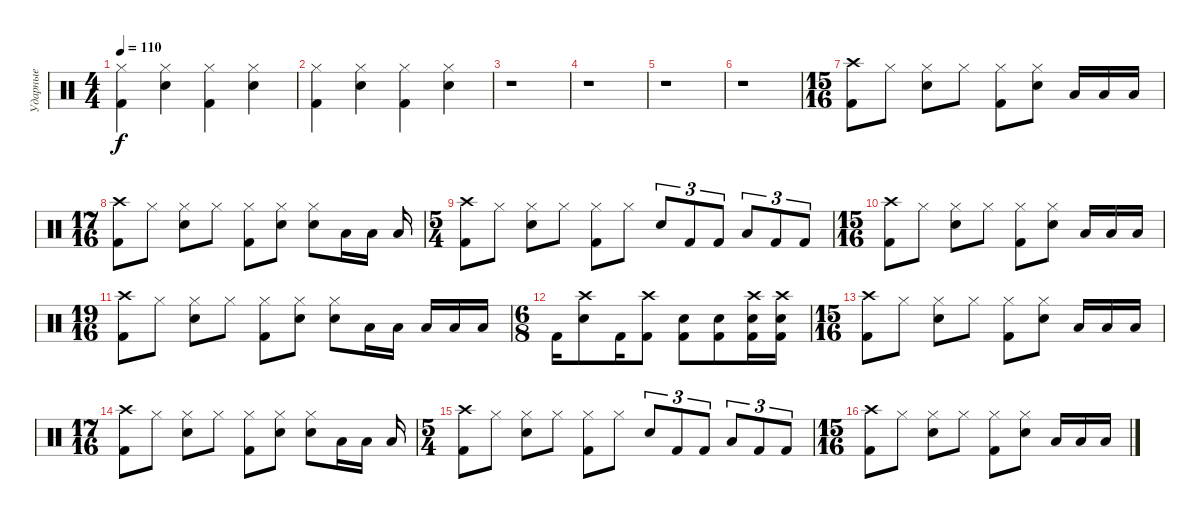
\track ("Ударные" "Ударные") {instrument percussion}
\staff {score}
\articulation defaults
\ts (4 4)
\tempo 110
\clef neutral
\ks c
("Kick (hit) 2" "Hi-Hat (closed)").4{dy f} ("Electric Snare (hit)" "Hi-Hat (closed)").4 ("Kick (hit) 2" "Hi-Hat (closed)").4 ("Electric Snare (hit)" "Hi-Hat (closed)").4 |
("Kick (hit) 2" "Hi-Hat (closed)").4 ("Electric Snare (hit)" "Hi-Hat (closed)").4 ("Kick (hit) 2" "Hi-Hat (closed)").4 ("Electric Snare (hit)" "Hi-Hat (closed)").4 |
r.1 |
r.1 |
r.1 |
r.1 |
\ts (15 16)
("Crash high (hit)" "Kick (hit) 2").8 "Hi-Hat (closed)".8 ("Electric Snare (hit)" "Hi-Hat (closed)").8 "Hi-Hat (closed)".8 ("Kick (hit) 2" "Hi-Hat (closed)").8 ("Electric Snare (hit)" "Hi-Hat (closed)").8 "Low Tom (hit)".16 "Low Tom (hit)".16 "Low Tom (hit)".16 |
\ts (17 16)
("Kick (hit) 2" "Crash high (hit)").8 "Hi-Hat (closed)".8 ("Hi-Hat (closed)" "Electric Snare (hit)").8 "Hi-Hat (closed)".8 ("Hi-Hat (closed)" "Kick (hit) 2").8 ("Hi-Hat (closed)" "Electric Snare (hit)").8 ("Hi-Hat (closed)" "Electric Snare (hit)").8 "Low Tom (hit)".16 "Low Tom (hit)".16 "Low Tom (hit)".16 |
\ts (5 4)
("Crash high (hit)" "Kick (hit) 2").8 "Hi-Hat (closed)".8 ("Electric Snare (hit)" "Hi-Hat (closed)").8 "Hi-Hat (closed)".8 ("Kick (hit) 2" "Hi-Hat (closed)").8 "Hi-Hat (closed)".8 "Electric Snare (hit)".8{tu (3 2)} "Kick (hit) 2".8{tu (3 2)} "Kick (hit) 2".8{tu (3 2)} "Low Tom (hit)".8{tu (3 2)} "Kick (hit) 2".8{tu (3 2)} "Kick (hit) 2".8{tu (3 2)} |
\ts (15 16)
("Crash high (hit)" "Kick (hit) 2").8 "Hi-Hat (closed)".8 ("Electric Snare (hit)" "Hi-Hat (closed)").8 "Hi-Hat (closed)".8 ("Kick (hit) 2" "Hi-Hat (closed)").8 ("Electric Snare (hit)" "Hi-Hat (closed)").8 "Low Tom (hit)".16 "Low Tom (hit)".16 "Low Tom (hit)".16 |
\ts (19 16)
("Kick (hit) 2" "Crash high (hit)").8 "Hi-Hat (closed)".8 ("Hi-Hat (closed)" "Electric Snare (hit)").8 "Hi-Hat (closed)".8 ("Hi-Hat (closed)" "Kick (hit) 2").8 ("Hi-Hat (closed)" "Electric Snare (hit)").8 ("Hi-Hat (closed)" "Electric Snare (hit)").8 "Low Tom (hit)".16 "Low Tom (hit)".16 "Low Tom (hit)".16 "Low Tom (hit)".16 "Low Tom (hit)".16 |
\ts (6 8)
"Kick (hit) 2".16 ("Electric Snare (hit)" "Crash high (hit)").8 "Kick (hit) 2".16 ("Kick (hit) 2" "Crash high (hit)").8 ("Electric Snare (hit)" "Kick (hit) 2").8 ("Electric Snare (hit)" "Kick (hit) 2").8 ("Crash high (hit)" "Kick (hit) 2" "Electric Snare (hit)").16 ("Crash high (hit)" "Kick (hit) 2" "Electric Snare (hit)").16 |
\ts (15 16)
("Crash high (hit)" "Kick (hit) 2").8 "Hi-Hat (closed)".8 ("Electric Snare (hit)" "Hi-Hat (closed)").8 "Hi-Hat (closed)".8 ("Kick (hit) 2" "Hi-Hat (closed)").8 ("Electric Snare (hit)" "Hi-Hat (closed)").8 "Low Tom (hit)".16 "Low Tom (hit)".16 "Low Tom (hit)".16 |
\ts (17 16)
("Kick (hit) 2" "Crash high (hit)").8 "Hi-Hat (closed)".8 ("Hi-Hat (closed)" "Electric Snare (hit)").8 "Hi-Hat (closed)".8 ("Hi-Hat (closed)" "Kick (hit) 2").8 ("Hi-Hat (closed)" "Electric Snare (hit)").8 ("Hi-Hat (closed)" "Electric Snare (hit)").8 "Low Tom (hit)".16 "Low Tom (hit)".16 "Low Tom (hit)".16 |
\ts (5 4)
("Crash high (hit)" "Kick (hit) 2").8 "Hi-Hat (closed)".8 ("Electric Snare (hit)" "Hi-Hat (closed)").8 "Hi-Hat (closed)".8 ("Kick (hit) 2" "Hi-Hat (closed)").8 "Hi-Hat (closed)".8 "Electric Snare (hit)".8{tu (3 2)} "Kick (hit) 2".8{tu (3 2)} "Kick (hit) 2".8{tu (3 2)} "Low Tom (hit)".8{tu (3 2)} "Kick (hit) 2".8{tu (3 2)} "Kick (hit) 2".8{tu (3 2)} |
\ts (15 16)
("Crash high (hit)" "Kick (hit) 2").8 "Hi-Hat (closed)".8 ("Electric Snare (hit)" "Hi-Hat (closed)").8 "Hi-Hat (closed)".8 ("Kick (hit) 2" "Hi-Hat (closed)").8 ("Electric Snare (hit)" "Hi-Hat (closed)").8 "Low Tom (hit)".16 "Low Tom (hit)".16 "Low Tom (hit)".16
